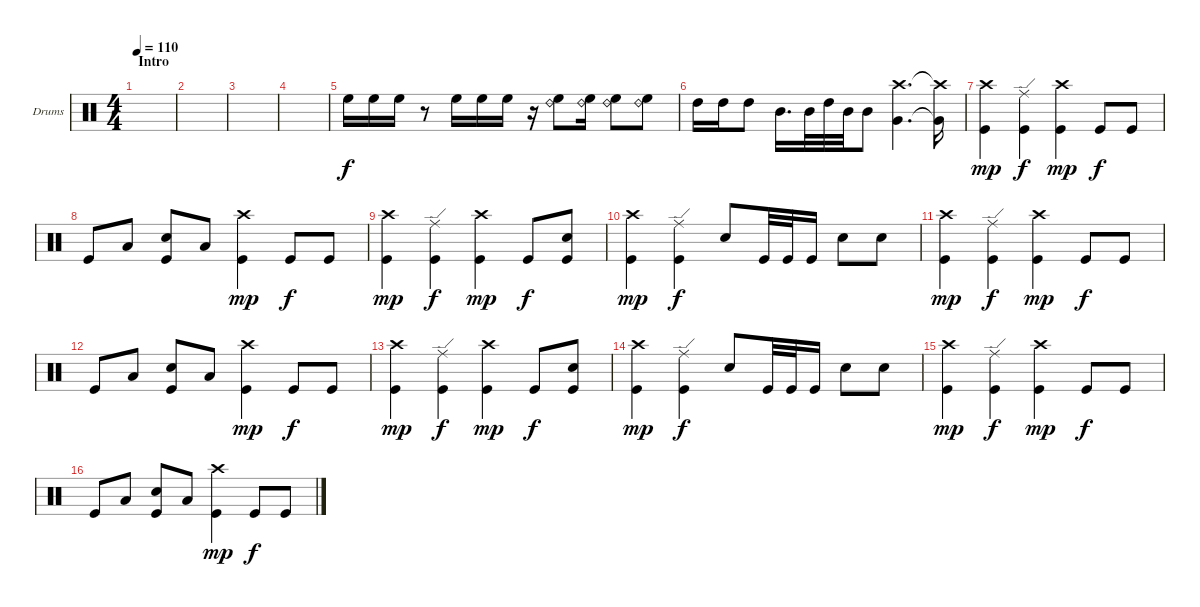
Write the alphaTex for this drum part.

\bracketExtendMode groupsimilarinstruments
\firstSystemTrackNameOrientation horizontal
\otherSystemsTrackNameOrientation horizontal
\track ("Drumkit" "Drums") {instrument percussion}
\staff {score}
\articulation defaults
\ts (4 4)
\section ("" "Intro")
\tempo 110
\clef neutral
\ks c
|
|
|
|
"High Floor Tom (hit)".16 "High Floor Tom (hit)".16 "High Floor Tom (hit)".16 r.8 "High Floor Tom (hit)".16 "High Floor Tom (hit)".16 "High Floor Tom (hit)".16 r.16 ("Ride (bell) 2" "High Floor Tom (hit)").8 ("Ride (bell) 2" "High Floor Tom (hit)").16 ("Ride (bell) 2" "High Floor Tom (hit)").8 ("Ride (bell) 2" "High Floor Tom (hit)").8 |
"High Tom (hit)".16 "High Tom (hit)".16 "High Tom (hit)".8 "Mid Tom (hit)".16{d} "Mid Tom (hit)".32 "High Tom (hit)".32 "Mid Tom (hit)".32 "Mid Tom (hit)".8 ("Very Low Tom (hit)" "Crash high (hit)").4{d} ("Very Low Tom (hit)"{t} "Crash high (hit)"{t}).16 |
("Crash high (hit)" "Kick (hit)").4{dy mp} ("Ride (edge)" "Kick (hit)").4{dy f} ("Crash high (hit)" "Kick (hit)").4{dy mp} "Kick (hit)".8{dy f} "Kick (hit)".8 |
"Kick (hit)".8 "Low Tom (hit)".8 ("Snare (hit) 2" "Kick (hit)").8 "Low Tom (hit)".8 ("Crash high (hit)" "Kick (hit)").4{dy mp} "Kick (hit)".8{dy f} "Kick (hit)".8 |
("Crash high (hit)" "Kick (hit)").4{dy mp} ("Ride (edge)" "Kick (hit)").4{dy f} ("Crash high (hit)" "Kick (hit)").4{dy mp} "Kick (hit)".8{dy f} ("Snare (hit) 2" "Kick (hit)").8 |
("Crash high (hit)" "Kick (hit)").4{dy mp} ("Ride (edge)" "Kick (hit)").4{dy f} "Snare (hit) 2".8 "Kick (hit)".32 "Kick (hit)".32 "Kick (hit)".16 "Snare (hit) 2".8 "Snare (hit) 2".8 |
("Crash high (hit)" "Kick (hit)").4{dy mp} ("Ride (edge)" "Kick (hit)").4{dy f} ("Crash high (hit)" "Kick (hit)").4{dy mp} "Kick (hit)".8{dy f} "Kick (hit)".8 |
"Kick (hit)".8 "Low Tom (hit)".8 ("Snare (hit) 2" "Kick (hit)").8 "Low Tom (hit)".8 ("Crash high (hit)" "Kick (hit)").4{dy mp} "Kick (hit)".8{dy f} "Kick (hit)".8 |
("Crash high (hit)" "Kick (hit)").4{dy mp} ("Ride (edge)" "Kick (hit)").4{dy f} ("Crash high (hit)" "Kick (hit)").4{dy mp} "Kick (hit)".8{dy f} ("Snare (hit) 2" "Kick (hit)").8 |
("Crash high (hit)" "Kick (hit)").4{dy mp} ("Ride (edge)" "Kick (hit)").4{dy f} "Snare (hit) 2".8 "Kick (hit)".32 "Kick (hit)".32 "Kick (hit)".16 "Snare (hit) 2".8 "Snare (hit) 2".8 |
("Crash high (hit)" "Kick (hit)").4{dy mp} ("Ride (edge)" "Kick (hit)").4{dy f} ("Crash high (hit)" "Kick (hit)").4{dy mp} "Kick (hit)".8{dy f} "Kick (hit)".8 |
"Kick (hit)".8 "Low Tom (hit)".8 ("Snare (hit) 2" "Kick (hit)").8 "Low Tom (hit)".8 ("Crash high (hit)" "Kick (hit)").4{dy mp} "Kick (hit)".8{dy f} "Kick (hit)".8
